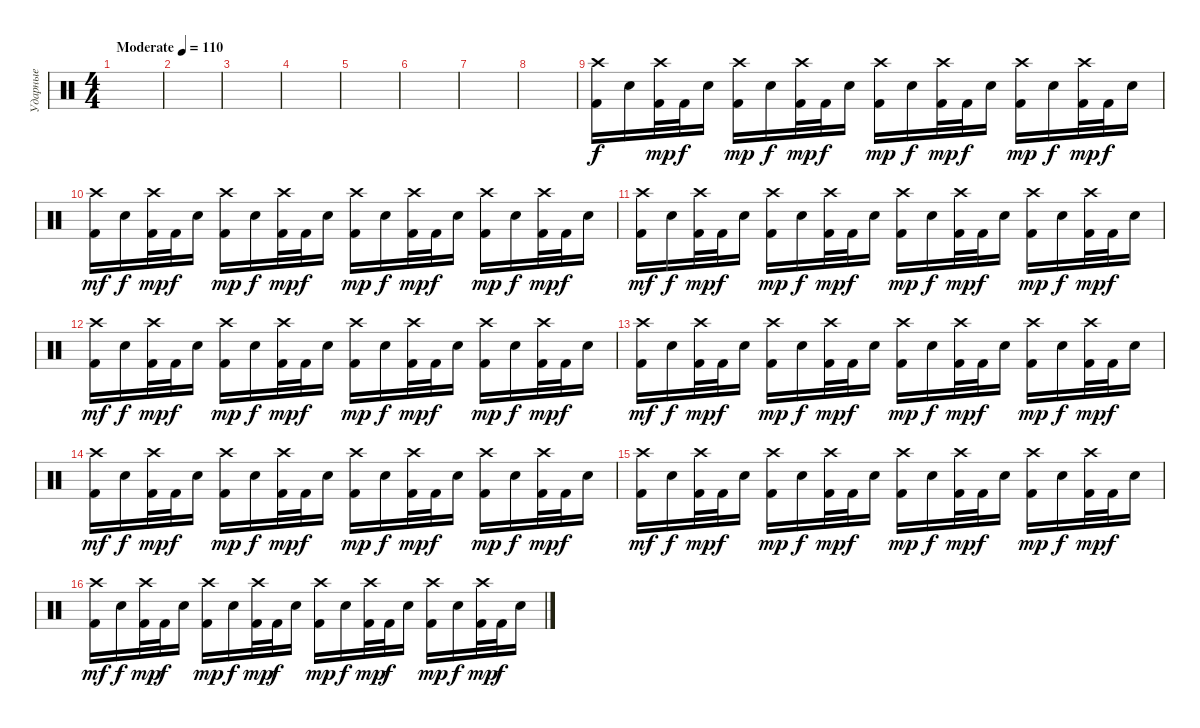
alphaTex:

\track ("Ударные" "Ударные") {instrument percussion}
\staff {score}
\articulation defaults
\ts (4 4)
\tempo (110 "Moderate")
\clef neutral
\ks c
|
|
|
|
|
|
|
|
("Crash high (hit)" "Kick (hit) 2").16 "Electric Snare (hit)".16{dy f} ("Crash high (hit)" "Kick (hit) 2").32{dy mp} "Kick (hit) 2".32{dy f} "Electric Snare (hit)".16 ("Crash high (hit)" "Kick (hit) 2").16{dy mp} "Electric Snare (hit)".16{dy f} ("Crash high (hit)" "Kick (hit) 2").32{dy mp} "Kick (hit) 2".32{dy f} "Electric Snare (hit)".16 ("Crash high (hit)" "Kick (hit) 2").16{dy mp} "Electric Snare (hit)".16{dy f} ("Crash high (hit)" "Kick (hit) 2").32{dy mp} "Kick (hit) 2".32{dy f} "Electric Snare (hit)".16 ("Crash high (hit)" "Kick (hit) 2").16{dy mp} "Electric Snare (hit)".16{dy f} ("Crash high (hit)" "Kick (hit) 2").32{dy mp} "Kick (hit) 2".32{dy f} "Electric Snare (hit)".16 |
("Crash high (hit)" "Kick (hit) 2").16{dy mf} "Electric Snare (hit)".16{dy f} ("Crash high (hit)" "Kick (hit) 2").32{dy mp} "Kick (hit) 2".32{dy f} "Electric Snare (hit)".16 ("Crash high (hit)" "Kick (hit) 2").16{dy mp} "Electric Snare (hit)".16{dy f} ("Crash high (hit)" "Kick (hit) 2").32{dy mp} "Kick (hit) 2".32{dy f} "Electric Snare (hit)".16 ("Crash high (hit)" "Kick (hit) 2").16{dy mp} "Electric Snare (hit)".16{dy f} ("Crash high (hit)" "Kick (hit) 2").32{dy mp} "Kick (hit) 2".32{dy f} "Electric Snare (hit)".16 ("Crash high (hit)" "Kick (hit) 2").16{dy mp} "Electric Snare (hit)".16{dy f} ("Crash high (hit)" "Kick (hit) 2").32{dy mp} "Kick (hit) 2".32{dy f} "Electric Snare (hit)".16 |
("Crash high (hit)" "Kick (hit) 2").16{dy mf} "Electric Snare (hit)".16{dy f} ("Crash high (hit)" "Kick (hit) 2").32{dy mp} "Kick (hit) 2".32{dy f} "Electric Snare (hit)".16 ("Crash high (hit)" "Kick (hit) 2").16{dy mp} "Electric Snare (hit)".16{dy f} ("Crash high (hit)" "Kick (hit) 2").32{dy mp} "Kick (hit) 2".32{dy f} "Electric Snare (hit)".16 ("Crash high (hit)" "Kick (hit) 2").16{dy mp} "Electric Snare (hit)".16{dy f} ("Crash high (hit)" "Kick (hit) 2").32{dy mp} "Kick (hit) 2".32{dy f} "Electric Snare (hit)".16 ("Crash high (hit)" "Kick (hit) 2").16{dy mp} "Electric Snare (hit)".16{dy f} ("Crash high (hit)" "Kick (hit) 2").32{dy mp} "Kick (hit) 2".32{dy f} "Electric Snare (hit)".16 |
("Crash high (hit)" "Kick (hit) 2").16{dy mf} "Electric Snare (hit)".16{dy f} ("Crash high (hit)" "Kick (hit) 2").32{dy mp} "Kick (hit) 2".32{dy f} "Electric Snare (hit)".16 ("Crash high (hit)" "Kick (hit) 2").16{dy mp} "Electric Snare (hit)".16{dy f} ("Crash high (hit)" "Kick (hit) 2").32{dy mp} "Kick (hit) 2".32{dy f} "Electric Snare (hit)".16 ("Crash high (hit)" "Kick (hit) 2").16{dy mp} "Electric Snare (hit)".16{dy f} ("Crash high (hit)" "Kick (hit) 2").32{dy mp} "Kick (hit) 2".32{dy f} "Electric Snare (hit)".16 ("Crash high (hit)" "Kick (hit) 2").16{dy mp} "Electric Snare (hit)".16{dy f} ("Crash high (hit)" "Kick (hit) 2").32{dy mp} "Kick (hit) 2".32{dy f} "Electric Snare (hit)".16 |
("Crash high (hit)" "Kick (hit) 2").16{dy mf} "Electric Snare (hit)".16{dy f} ("Crash high (hit)" "Kick (hit) 2").32{dy mp} "Kick (hit) 2".32{dy f} "Electric Snare (hit)".16 ("Crash high (hit)" "Kick (hit) 2").16{dy mp} "Electric Snare (hit)".16{dy f} ("Crash high (hit)" "Kick (hit) 2").32{dy mp} "Kick (hit) 2".32{dy f} "Electric Snare (hit)".16 ("Crash high (hit)" "Kick (hit) 2").16{dy mp} "Electric Snare (hit)".16{dy f} ("Crash high (hit)" "Kick (hit) 2").32{dy mp} "Kick (hit) 2".32{dy f} "Electric Snare (hit)".16 ("Crash high (hit)" "Kick (hit) 2").16{dy mp} "Electric Snare (hit)".16{dy f} ("Crash high (hit)" "Kick (hit) 2").32{dy mp} "Kick (hit) 2".32{dy f} "Electric Snare (hit)".16 |
("Crash high (hit)" "Kick (hit) 2").16{dy mf} "Electric Snare (hit)".16{dy f} ("Crash high (hit)" "Kick (hit) 2").32{dy mp} "Kick (hit) 2".32{dy f} "Electric Snare (hit)".16 ("Crash high (hit)" "Kick (hit) 2").16{dy mp} "Electric Snare (hit)".16{dy f} ("Crash high (hit)" "Kick (hit) 2").32{dy mp} "Kick (hit) 2".32{dy f} "Electric Snare (hit)".16 ("Crash high (hit)" "Kick (hit) 2").16{dy mp} "Electric Snare (hit)".16{dy f} ("Crash high (hit)" "Kick (hit) 2").32{dy mp} "Kick (hit) 2".32{dy f} "Electric Snare (hit)".16 ("Crash high (hit)" "Kick (hit) 2").16{dy mp} "Electric Snare (hit)".16{dy f} ("Crash high (hit)" "Kick (hit) 2").32{dy mp} "Kick (hit) 2".32{dy f} "Electric Snare (hit)".16 |
("Crash high (hit)" "Kick (hit) 2").16{dy mf} "Electric Snare (hit)".16{dy f} ("Crash high (hit)" "Kick (hit) 2").32{dy mp} "Kick (hit) 2".32{dy f} "Electric Snare (hit)".16 ("Crash high (hit)" "Kick (hit) 2").16{dy mp} "Electric Snare (hit)".16{dy f} ("Crash high (hit)" "Kick (hit) 2").32{dy mp} "Kick (hit) 2".32{dy f} "Electric Snare (hit)".16 ("Crash high (hit)" "Kick (hit) 2").16{dy mp} "Electric Snare (hit)".16{dy f} ("Crash high (hit)" "Kick (hit) 2").32{dy mp} "Kick (hit) 2".32{dy f} "Electric Snare (hit)".16 ("Crash high (hit)" "Kick (hit) 2").16{dy mp} "Electric Snare (hit)".16{dy f} ("Crash high (hit)" "Kick (hit) 2").32{dy mp} "Kick (hit) 2".32{dy f} "Electric Snare (hit)".16 |
("Crash high (hit)" "Kick (hit) 2").16{dy mf} "Electric Snare (hit)".16{dy f} ("Crash high (hit)" "Kick (hit) 2").32{dy mp} "Kick (hit) 2".32{dy f} "Electric Snare (hit)".16 ("Crash high (hit)" "Kick (hit) 2").16{dy mp} "Electric Snare (hit)".16{dy f} ("Crash high (hit)" "Kick (hit) 2").32{dy mp} "Kick (hit) 2".32{dy f} "Electric Snare (hit)".16 ("Crash high (hit)" "Kick (hit) 2").16{dy mp} "Electric Snare (hit)".16{dy f} ("Crash high (hit)" "Kick (hit) 2").32{dy mp} "Kick (hit) 2".32{dy f} "Electric Snare (hit)".16 ("Crash high (hit)" "Kick (hit) 2").16{dy mp} "Electric Snare (hit)".16{dy f} ("Crash high (hit)" "Kick (hit) 2").32{dy mp} "Kick (hit) 2".32{dy f} "Electric Snare (hit)".16
